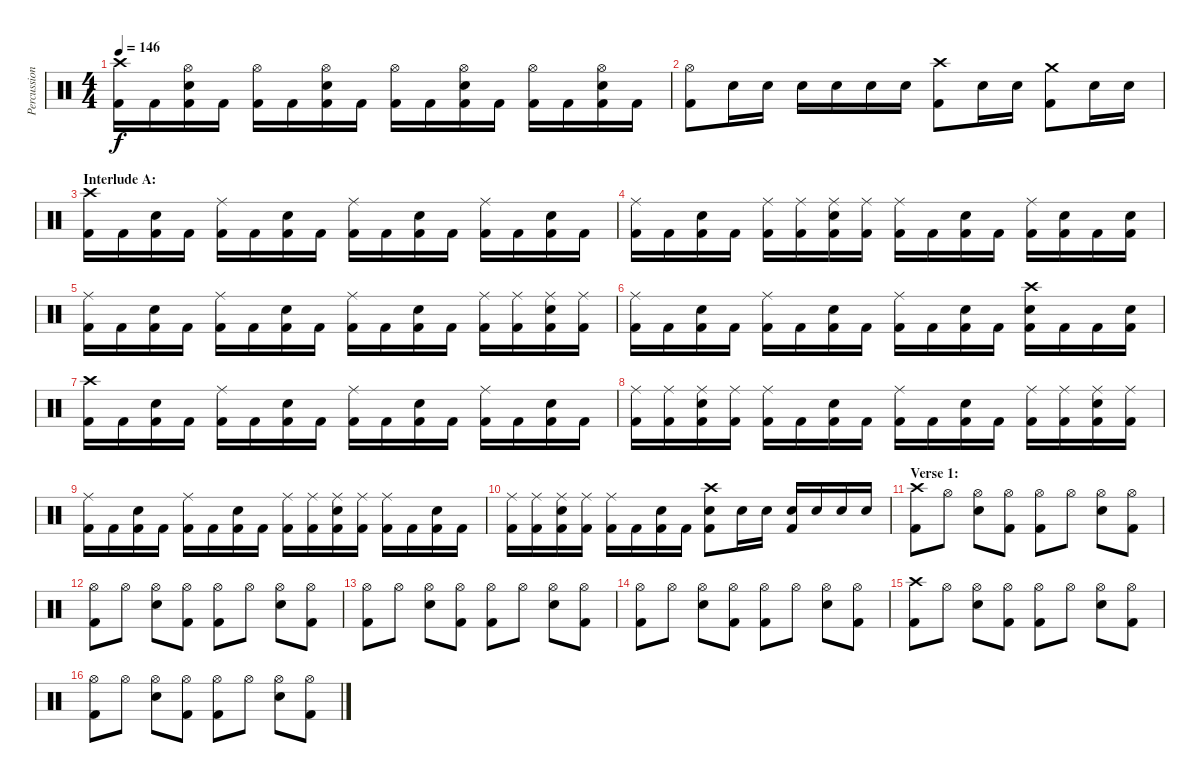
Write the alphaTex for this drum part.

\track ("Percussion" "Percussion") {instrument percussion}
\staff {score}
\articulation defaults
\ts (4 4)
\tempo 146
\clef neutral
\ks c
("Crash high (hit)" "Kick (hit) 2").16{dy f} "Kick (hit) 2".16 ("Hi-Hat (open)" "Snare (hit) 2" "Kick (hit) 2").16 "Kick (hit) 2".16 ("Hi-Hat (open)" "Kick (hit) 2").16 "Kick (hit) 2".16 ("Hi-Hat (open)" "Snare (hit) 2" "Kick (hit) 2").16 "Kick (hit) 2".16 ("Hi-Hat (open)" "Kick (hit) 2").16 "Kick (hit) 2".16 ("Hi-Hat (open)" "Snare (hit) 2" "Kick (hit) 2").16 "Kick (hit) 2".16 ("Hi-Hat (open)" "Kick (hit) 2").16 "Kick (hit) 2".16 ("Hi-Hat (open)" "Snare (hit) 2" "Kick (hit) 2").16 "Kick (hit) 2".16 |
("Hi-Hat (open)" "Kick (hit) 2").8 "Snare (hit) 2".16 "Snare (hit) 2".16 "Snare (hit) 2".16 "Snare (hit) 2".16 "Snare (hit) 2".16 "Snare (hit) 2".16 ("Crash high (hit)" "Kick (hit) 2").8 "Snare (hit) 2".16 "Snare (hit) 2".16 ("Crash medium (hit)" "Kick (hit) 2").8 "Snare (hit) 2".16 "Snare (hit) 2".16 |
\section ("" "Interlude A:")
("Crash high (hit)" "Kick (hit) 2").16 "Kick (hit) 2".16 ("Snare (hit) 2" "Kick (hit) 2").16 "Kick (hit) 2".16 ("Ride (middle)" "Kick (hit) 2").16 "Kick (hit) 2".16 ("Snare (hit) 2" "Kick (hit) 2").16 "Kick (hit) 2".16 ("Ride (middle)" "Kick (hit) 2").16 "Kick (hit) 2".16 ("Snare (hit) 2" "Kick (hit) 2").16 "Kick (hit) 2".16 ("Ride (middle)" "Kick (hit) 2").16 "Kick (hit) 2".16 ("Snare (hit) 2" "Kick (hit) 2").16 "Kick (hit) 2".16 |
("Ride (middle)" "Kick (hit) 2").16 "Kick (hit) 2".16 ("Snare (hit) 2" "Kick (hit) 2").16 "Kick (hit) 2".16 ("Ride (middle)" "Kick (hit) 2").16 ("Ride (middle)" "Kick (hit) 2").16 ("Ride (middle)" "Snare (hit) 2" "Kick (hit) 2").16 ("Ride (middle)" "Kick (hit) 2").16 ("Ride (middle)" "Kick (hit) 2").16 "Kick (hit) 2".16 ("Snare (hit) 2" "Kick (hit) 2").16 "Kick (hit) 2".16 ("Ride (middle)" "Kick (hit) 2").16 ("Snare (hit) 2" "Kick (hit) 2").16 "Kick (hit) 2".16 ("Snare (hit) 2" "Kick (hit) 2").16 |
("Ride (middle)" "Kick (hit) 2").16 "Kick (hit) 2".16 ("Snare (hit) 2" "Kick (hit) 2").16 "Kick (hit) 2".16 ("Ride (middle)" "Kick (hit) 2").16 "Kick (hit) 2".16 ("Snare (hit) 2" "Kick (hit) 2").16 "Kick (hit) 2".16 ("Ride (middle)" "Kick (hit) 2").16 "Kick (hit) 2".16 ("Snare (hit) 2" "Kick (hit) 2").16 "Kick (hit) 2".16 ("Ride (middle)" "Kick (hit) 2").16 ("Ride (middle)" "Kick (hit) 2").16 ("Ride (middle)" "Snare (hit) 2" "Kick (hit) 2").16 ("Ride (middle)" "Kick (hit) 2").16 |
("Ride (middle)" "Kick (hit) 2").16 "Kick (hit) 2".16 ("Snare (hit) 2" "Kick (hit) 2").16 "Kick (hit) 2".16 ("Ride (middle)" "Kick (hit) 2").16 "Kick (hit) 2".16 ("Snare (hit) 2" "Kick (hit) 2").16 "Kick (hit) 2".16 ("Ride (middle)" "Kick (hit) 2").16 "Kick (hit) 2".16 ("Snare (hit) 2" "Kick (hit) 2").16 "Kick (hit) 2".16 ("Crash high (hit)" "Snare (hit) 2" "Kick (hit) 2").16 "Kick (hit) 2".16 "Kick (hit) 2".16 ("Snare (hit) 2" "Kick (hit) 2").16 |
("Crash high (hit)" "Kick (hit) 2").16 "Kick (hit) 2".16 ("Snare (hit) 2" "Kick (hit) 2").16 "Kick (hit) 2".16 ("Ride (middle)" "Kick (hit) 2").16 "Kick (hit) 2".16 ("Snare (hit) 2" "Kick (hit) 2").16 "Kick (hit) 2".16 ("Ride (middle)" "Kick (hit) 2").16 "Kick (hit) 2".16 ("Snare (hit) 2" "Kick (hit) 2").16 "Kick (hit) 2".16 ("Ride (middle)" "Kick (hit) 2").16 "Kick (hit) 2".16 ("Snare (hit) 2" "Kick (hit) 2").16 "Kick (hit) 2".16 |
("Ride (middle)" "Kick (hit) 2").16 ("Ride (middle)" "Kick (hit) 2").16 ("Ride (middle)" "Snare (hit) 2" "Kick (hit) 2").16 ("Ride (middle)" "Kick (hit) 2").16 ("Ride (middle)" "Kick (hit) 2").16 "Kick (hit) 2".16 ("Snare (hit) 2" "Kick (hit) 2").16 "Kick (hit) 2".16 ("Ride (middle)" "Kick (hit) 2").16 "Kick (hit) 2".16 ("Snare (hit) 2" "Kick (hit) 2").16 "Kick (hit) 2".16 ("Ride (middle)" "Kick (hit) 2").16 ("Ride (middle)" "Kick (hit) 2").16 ("Ride (middle)" "Snare (hit) 2" "Kick (hit) 2").16 ("Ride (middle)" "Kick (hit) 2").16 |
("Ride (middle)" "Kick (hit) 2").16 "Kick (hit) 2".16 ("Snare (hit) 2" "Kick (hit) 2").16 "Kick (hit) 2".16 ("Ride (middle)" "Kick (hit) 2").16 "Kick (hit) 2".16 ("Snare (hit) 2" "Kick (hit) 2").16 "Kick (hit) 2".16 ("Ride (middle)" "Kick (hit) 2").16 ("Ride (middle)" "Kick (hit) 2").16 ("Ride (middle)" "Snare (hit) 2" "Kick (hit) 2").16 ("Ride (middle)" "Kick (hit) 2").16 ("Ride (middle)" "Kick (hit) 2").16 "Kick (hit) 2".16 ("Snare (hit) 2" "Kick (hit) 2").16 "Kick (hit) 2".16 |
("Ride (middle)" "Kick (hit) 2").16 ("Ride (middle)" "Kick (hit) 2").16 ("Ride (middle)" "Snare (hit) 2" "Kick (hit) 2").16 ("Ride (middle)" "Kick (hit) 2").16 ("Ride (middle)" "Kick (hit) 2").16 "Kick (hit) 2".16 ("Snare (hit) 2" "Kick (hit) 2").16 "Kick (hit) 2".16 ("Crash high (hit)" "Snare (hit) 2" "Kick (hit) 2").8 "Snare (hit) 2".16 "Snare (hit) 2".16 ("Snare (hit) 2" "Kick (hit) 2").16 "Snare (hit) 2".16 "Snare (hit) 2".16 "Snare (hit) 2".16 |
\section ("" "Verse 1:")
("Crash high (hit)" "Kick (hit) 2").8 "Hi-Hat (open)".8 ("Hi-Hat (open)" "Snare (hit) 2").8 ("Hi-Hat (open)" "Kick (hit) 2").8 ("Hi-Hat (open)" "Kick (hit) 2").8 "Hi-Hat (open)".8 ("Hi-Hat (open)" "Snare (hit) 2").8 ("Hi-Hat (open)" "Kick (hit) 2").8 |
("Hi-Hat (open)" "Kick (hit) 2").8 "Hi-Hat (open)".8 ("Hi-Hat (open)" "Snare (hit) 2").8 ("Hi-Hat (open)" "Kick (hit) 2").8 ("Hi-Hat (open)" "Kick (hit) 2").8 "Hi-Hat (open)".8 ("Hi-Hat (open)" "Snare (hit) 2").8 ("Hi-Hat (open)" "Kick (hit) 2").8 |
("Hi-Hat (open)" "Kick (hit) 2").8 "Hi-Hat (open)".8 ("Hi-Hat (open)" "Snare (hit) 2").8 ("Hi-Hat (open)" "Kick (hit) 2").8 ("Hi-Hat (open)" "Kick (hit) 2").8 "Hi-Hat (open)".8 ("Hi-Hat (open)" "Snare (hit) 2").8 ("Hi-Hat (open)" "Kick (hit) 2").8 |
("Hi-Hat (open)" "Kick (hit) 2").8 "Hi-Hat (open)".8 ("Hi-Hat (open)" "Snare (hit) 2").8 ("Hi-Hat (open)" "Kick (hit) 2").8 ("Hi-Hat (open)" "Kick (hit) 2").8 "Hi-Hat (open)".8 ("Hi-Hat (open)" "Snare (hit) 2").8 ("Hi-Hat (open)" "Kick (hit) 2").8 |
("Crash high (hit)" "Kick (hit) 2").8 "Hi-Hat (open)".8 ("Hi-Hat (open)" "Snare (hit) 2").8 ("Hi-Hat (open)" "Kick (hit) 2").8 ("Hi-Hat (open)" "Kick (hit) 2").8 "Hi-Hat (open)".8 ("Hi-Hat (open)" "Snare (hit) 2").8 ("Hi-Hat (open)" "Kick (hit) 2").8 |
("Hi-Hat (open)" "Kick (hit) 2").8 "Hi-Hat (open)".8 ("Hi-Hat (open)" "Snare (hit) 2").8 ("Hi-Hat (open)" "Kick (hit) 2").8 ("Hi-Hat (open)" "Kick (hit) 2").8 "Hi-Hat (open)".8 ("Hi-Hat (open)" "Snare (hit) 2").8 ("Hi-Hat (open)" "Kick (hit) 2").8
